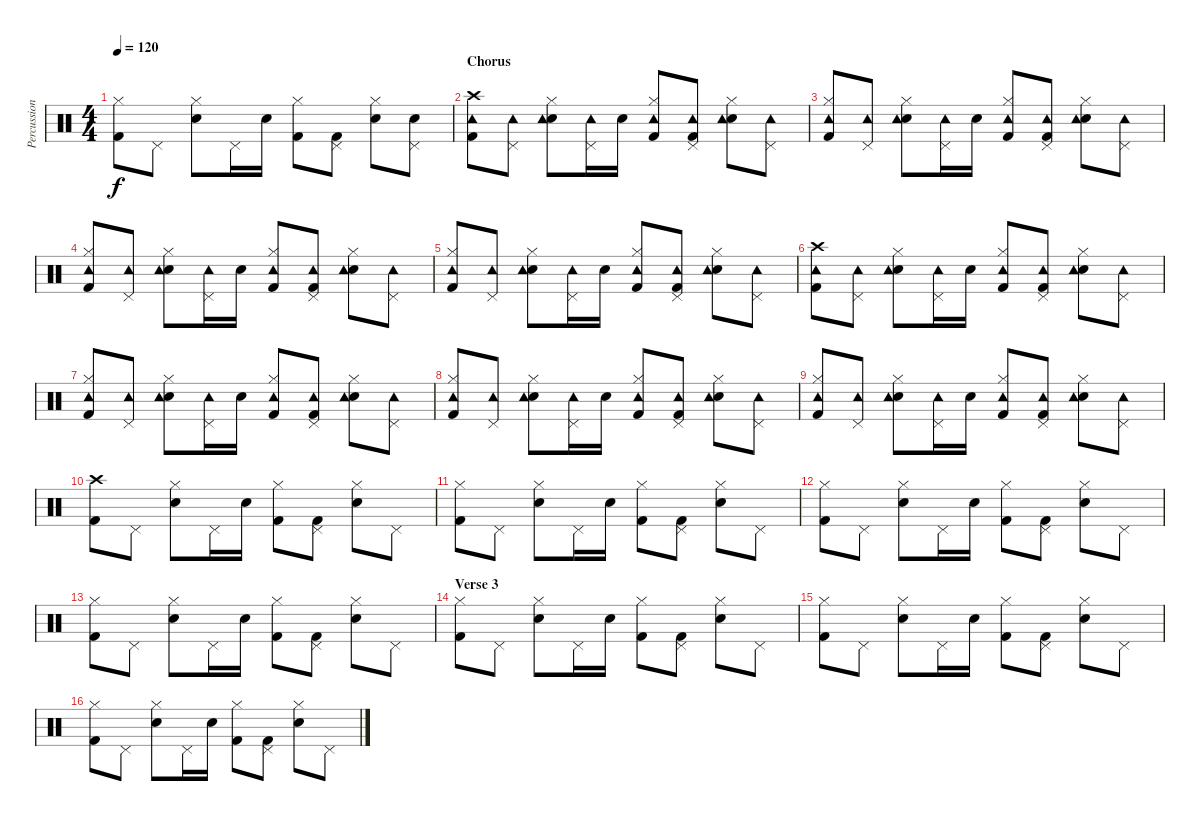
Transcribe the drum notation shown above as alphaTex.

\track ("Percussion" "Percussion") {instrument percussion}
\staff {score}
\articulation defaults
\ts (4 4)
\tempo 120
\clef neutral
\ks c
("Kick (hit) 2" "Hi-Hat (closed)").8{dy f} "Pedal Hi-Hat (hit)".8 ("Electric Snare (hit)" "Hi-Hat (closed)").8 "Pedal Hi-Hat (hit)".16 "Electric Snare (hit)".16 ("Kick (hit) 2" "Hi-Hat (closed)").8 ("Kick (hit) 2" "Pedal Hi-Hat (hit)").8 ("Electric Snare (hit)" "Hi-Hat (closed)").8 ("Electric Snare (hit)" "Pedal Hi-Hat (hit)").8 |
\section ("" "Chorus")
("Kick (hit) 2" "Tambourine (hit)" "Crash high (hit)").8 ("Tambourine (hit)" "Pedal Hi-Hat (hit)").8 ("Electric Snare (hit)" "Tambourine (hit)" "Hi-Hat (closed)").8 ("Tambourine (hit)" "Pedal Hi-Hat (hit)").16 "Electric Snare (hit)".16 ("Kick (hit) 2" "Tambourine (hit)" "Hi-Hat (closed)").8 ("Kick (hit) 2" "Tambourine (hit)" "Pedal Hi-Hat (hit)").8 ("Electric Snare (hit)" "Tambourine (hit)" "Hi-Hat (closed)").8 ("Tambourine (hit)" "Pedal Hi-Hat (hit)").8 |
("Kick (hit) 2" "Tambourine (hit)" "Hi-Hat (closed)").8 ("Tambourine (hit)" "Pedal Hi-Hat (hit)").8 ("Electric Snare (hit)" "Tambourine (hit)" "Hi-Hat (closed)").8 ("Tambourine (hit)" "Pedal Hi-Hat (hit)").16 "Electric Snare (hit)".16 ("Kick (hit) 2" "Tambourine (hit)" "Hi-Hat (closed)").8 ("Kick (hit) 2" "Tambourine (hit)" "Pedal Hi-Hat (hit)").8 ("Electric Snare (hit)" "Tambourine (hit)" "Hi-Hat (closed)").8 ("Tambourine (hit)" "Pedal Hi-Hat (hit)").8 |
("Kick (hit) 2" "Tambourine (hit)" "Hi-Hat (closed)").8 ("Tambourine (hit)" "Pedal Hi-Hat (hit)").8 ("Electric Snare (hit)" "Tambourine (hit)" "Hi-Hat (closed)").8 ("Tambourine (hit)" "Pedal Hi-Hat (hit)").16 "Electric Snare (hit)".16 ("Kick (hit) 2" "Tambourine (hit)" "Hi-Hat (closed)").8 ("Kick (hit) 2" "Tambourine (hit)" "Pedal Hi-Hat (hit)").8 ("Electric Snare (hit)" "Tambourine (hit)" "Hi-Hat (closed)").8 ("Tambourine (hit)" "Pedal Hi-Hat (hit)").8 |
("Kick (hit) 2" "Tambourine (hit)" "Hi-Hat (closed)").8 ("Tambourine (hit)" "Pedal Hi-Hat (hit)").8 ("Electric Snare (hit)" "Tambourine (hit)" "Hi-Hat (closed)").8 ("Tambourine (hit)" "Pedal Hi-Hat (hit)").16 "Electric Snare (hit)".16 ("Kick (hit) 2" "Tambourine (hit)" "Hi-Hat (closed)").8 ("Kick (hit) 2" "Tambourine (hit)" "Pedal Hi-Hat (hit)").8 ("Electric Snare (hit)" "Tambourine (hit)" "Hi-Hat (closed)").8 ("Tambourine (hit)" "Pedal Hi-Hat (hit)").8 |
("Kick (hit) 2" "Tambourine (hit)" "Crash high (hit)").8 ("Tambourine (hit)" "Pedal Hi-Hat (hit)").8 ("Electric Snare (hit)" "Tambourine (hit)" "Hi-Hat (closed)").8 ("Tambourine (hit)" "Pedal Hi-Hat (hit)").16 "Electric Snare (hit)".16 ("Kick (hit) 2" "Tambourine (hit)" "Hi-Hat (closed)").8 ("Kick (hit) 2" "Tambourine (hit)" "Pedal Hi-Hat (hit)").8 ("Electric Snare (hit)" "Tambourine (hit)" "Hi-Hat (closed)").8 ("Tambourine (hit)" "Pedal Hi-Hat (hit)").8 |
("Kick (hit) 2" "Tambourine (hit)" "Hi-Hat (closed)").8 ("Tambourine (hit)" "Pedal Hi-Hat (hit)").8 ("Electric Snare (hit)" "Tambourine (hit)" "Hi-Hat (closed)").8 ("Tambourine (hit)" "Pedal Hi-Hat (hit)").16 "Electric Snare (hit)".16 ("Kick (hit) 2" "Tambourine (hit)" "Hi-Hat (closed)").8 ("Kick (hit) 2" "Tambourine (hit)" "Pedal Hi-Hat (hit)").8 ("Electric Snare (hit)" "Tambourine (hit)" "Hi-Hat (closed)").8 ("Tambourine (hit)" "Pedal Hi-Hat (hit)").8 |
("Kick (hit) 2" "Tambourine (hit)" "Hi-Hat (closed)").8 ("Tambourine (hit)" "Pedal Hi-Hat (hit)").8 ("Electric Snare (hit)" "Tambourine (hit)" "Hi-Hat (closed)").8 ("Tambourine (hit)" "Pedal Hi-Hat (hit)").16 "Electric Snare (hit)".16 ("Kick (hit) 2" "Tambourine (hit)" "Hi-Hat (closed)").8 ("Kick (hit) 2" "Tambourine (hit)" "Pedal Hi-Hat (hit)").8 ("Electric Snare (hit)" "Tambourine (hit)" "Hi-Hat (closed)").8 ("Tambourine (hit)" "Pedal Hi-Hat (hit)").8 |
("Kick (hit) 2" "Tambourine (hit)" "Hi-Hat (closed)").8 ("Tambourine (hit)" "Pedal Hi-Hat (hit)").8 ("Electric Snare (hit)" "Tambourine (hit)" "Hi-Hat (closed)").8 ("Tambourine (hit)" "Pedal Hi-Hat (hit)").16 "Electric Snare (hit)".16 ("Kick (hit) 2" "Tambourine (hit)" "Hi-Hat (closed)").8 ("Kick (hit) 2" "Tambourine (hit)" "Pedal Hi-Hat (hit)").8 ("Electric Snare (hit)" "Tambourine (hit)" "Hi-Hat (closed)").8 ("Tambourine (hit)" "Pedal Hi-Hat (hit)").8 |
("Kick (hit) 2" "Crash high (hit)").8 "Pedal Hi-Hat (hit)".8 ("Electric Snare (hit)" "Hi-Hat (closed)").8 "Pedal Hi-Hat (hit)".16 "Electric Snare (hit)".16 ("Kick (hit) 2" "Hi-Hat (closed)").8 ("Kick (hit) 2" "Pedal Hi-Hat (hit)").8 ("Electric Snare (hit)" "Hi-Hat (closed)").8 "Pedal Hi-Hat (hit)".8 |
("Kick (hit) 2" "Hi-Hat (closed)").8 "Pedal Hi-Hat (hit)".8 ("Electric Snare (hit)" "Hi-Hat (closed)").8 "Pedal Hi-Hat (hit)".16 "Electric Snare (hit)".16 ("Kick (hit) 2" "Hi-Hat (closed)").8 ("Kick (hit) 2" "Pedal Hi-Hat (hit)").8 ("Electric Snare (hit)" "Hi-Hat (closed)").8 "Pedal Hi-Hat (hit)".8 |
("Kick (hit) 2" "Hi-Hat (closed)").8 "Pedal Hi-Hat (hit)".8 ("Electric Snare (hit)" "Hi-Hat (closed)").8 "Pedal Hi-Hat (hit)".16 "Electric Snare (hit)".16 ("Kick (hit) 2" "Hi-Hat (closed)").8 ("Kick (hit) 2" "Pedal Hi-Hat (hit)").8 ("Electric Snare (hit)" "Hi-Hat (closed)").8 "Pedal Hi-Hat (hit)".8 |
("Kick (hit) 2" "Hi-Hat (closed)").8 "Pedal Hi-Hat (hit)".8 ("Electric Snare (hit)" "Hi-Hat (closed)").8 "Pedal Hi-Hat (hit)".16 "Electric Snare (hit)".16 ("Kick (hit) 2" "Hi-Hat (closed)").8 ("Kick (hit) 2" "Pedal Hi-Hat (hit)").8 ("Electric Snare (hit)" "Hi-Hat (closed)").8 "Pedal Hi-Hat (hit)".8 |
\section ("" "Verse 3")
("Kick (hit) 2" "Hi-Hat (closed)").8 "Pedal Hi-Hat (hit)".8 ("Electric Snare (hit)" "Hi-Hat (closed)").8 "Pedal Hi-Hat (hit)".16 "Electric Snare (hit)".16 ("Kick (hit) 2" "Hi-Hat (closed)").8 ("Kick (hit) 2" "Pedal Hi-Hat (hit)").8 ("Electric Snare (hit)" "Hi-Hat (closed)").8 "Pedal Hi-Hat (hit)".8 |
("Kick (hit) 2" "Hi-Hat (closed)").8 "Pedal Hi-Hat (hit)".8 ("Electric Snare (hit)" "Hi-Hat (closed)").8 "Pedal Hi-Hat (hit)".16 "Electric Snare (hit)".16 ("Kick (hit) 2" "Hi-Hat (closed)").8 ("Kick (hit) 2" "Pedal Hi-Hat (hit)").8 ("Electric Snare (hit)" "Hi-Hat (closed)").8 "Pedal Hi-Hat (hit)".8 |
("Kick (hit) 2" "Hi-Hat (closed)").8 "Pedal Hi-Hat (hit)".8 ("Electric Snare (hit)" "Hi-Hat (closed)").8 "Pedal Hi-Hat (hit)".16 "Electric Snare (hit)".16 ("Kick (hit) 2" "Hi-Hat (closed)").8 ("Kick (hit) 2" "Pedal Hi-Hat (hit)").8 ("Electric Snare (hit)" "Hi-Hat (closed)").8 "Pedal Hi-Hat (hit)".8
